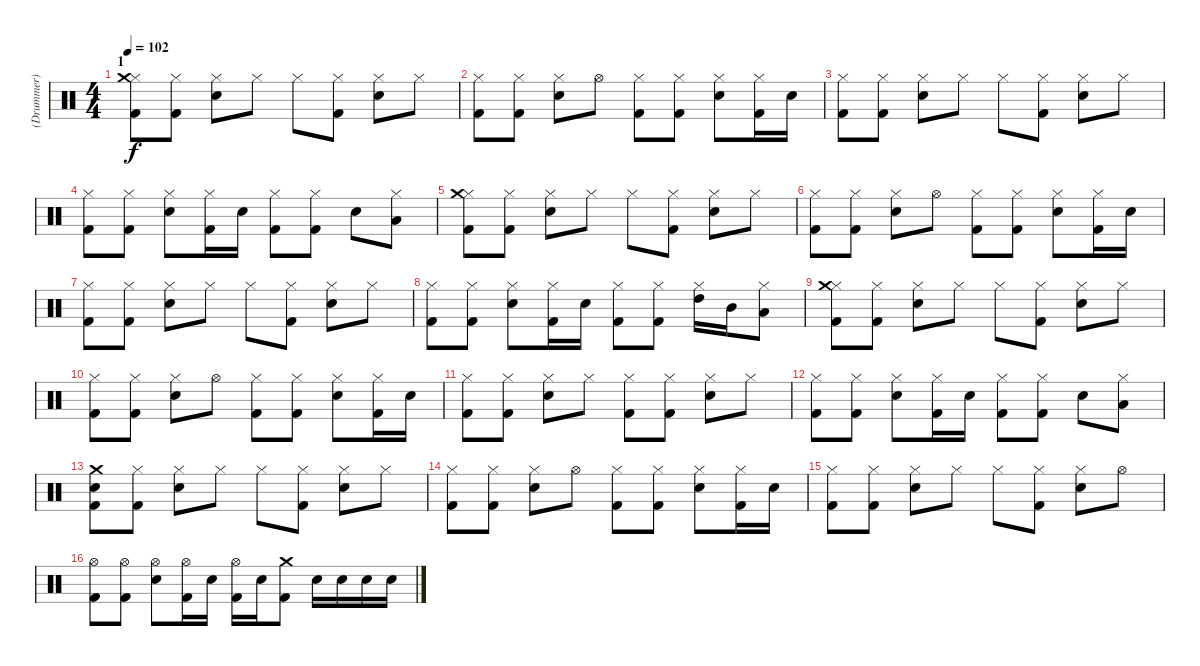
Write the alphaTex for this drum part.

\track ("(Drummer)" "(Drummer)") {solo instrument percussion}
\staff {score}
\articulation defaults
\ts (4 4)
\section ("" "1")
\tempo 102
\clef neutral
\ks c
("Hi-Hat (closed)" "Crash medium (hit)" "Kick (hit) 2").8{dy f} ("Hi-Hat (closed)" "Kick (hit) 2").8 ("Hi-Hat (closed)" "Electric Snare (hit)").8 "Hi-Hat (closed)".8 "Hi-Hat (closed)".8 ("Hi-Hat (closed)" "Kick (hit) 2").8 ("Hi-Hat (closed)" "Electric Snare (hit)").8 "Hi-Hat (closed)".8 |
("Hi-Hat (closed)" "Kick (hit) 2").8 ("Hi-Hat (closed)" "Kick (hit) 2").8 ("Hi-Hat (closed)" "Electric Snare (hit)").8 "Hi-Hat (open)".8 ("Hi-Hat (closed)" "Kick (hit) 2").8 ("Hi-Hat (closed)" "Kick (hit) 2").8 ("Hi-Hat (closed)" "Electric Snare (hit)").8 ("Hi-Hat (closed)" "Kick (hit) 2").16 "Electric Snare (hit)".16 |
("Hi-Hat (closed)" "Kick (hit) 2").8 ("Hi-Hat (closed)" "Kick (hit) 2").8 ("Hi-Hat (closed)" "Electric Snare (hit)").8 "Hi-Hat (closed)".8 "Hi-Hat (closed)".8 ("Hi-Hat (closed)" "Kick (hit) 2").8 ("Hi-Hat (closed)" "Electric Snare (hit)").8 "Hi-Hat (closed)".8 |
("Hi-Hat (closed)" "Kick (hit) 2").8 ("Hi-Hat (closed)" "Kick (hit) 2").8 ("Hi-Hat (closed)" "Electric Snare (hit)").8 ("Hi-Hat (closed)" "Kick (hit) 2").16 "Electric Snare (hit)".16 ("Hi-Hat (closed)" "Kick (hit) 2").8 ("Hi-Hat (closed)" "Kick (hit) 2").8 "Electric Snare (hit)".8 ("Hi-Hat (closed)" "Low Tom (hit)").8 |
("Hi-Hat (closed)" "Crash medium (hit)" "Kick (hit) 2").8 ("Hi-Hat (closed)" "Kick (hit) 2").8 ("Hi-Hat (closed)" "Electric Snare (hit)").8 "Hi-Hat (closed)".8 "Hi-Hat (closed)".8 ("Hi-Hat (closed)" "Kick (hit) 2").8 ("Hi-Hat (closed)" "Electric Snare (hit)").8 "Hi-Hat (closed)".8 |
("Hi-Hat (closed)" "Kick (hit) 2").8 ("Hi-Hat (closed)" "Kick (hit) 2").8 ("Hi-Hat (closed)" "Electric Snare (hit)").8 "Hi-Hat (open)".8 ("Hi-Hat (closed)" "Kick (hit) 2").8 ("Hi-Hat (closed)" "Kick (hit) 2").8 ("Hi-Hat (closed)" "Electric Snare (hit)").8 ("Hi-Hat (closed)" "Kick (hit) 2").16 "Electric Snare (hit)".16 |
("Hi-Hat (closed)" "Kick (hit) 2").8 ("Hi-Hat (closed)" "Kick (hit) 2").8 ("Hi-Hat (closed)" "Electric Snare (hit)").8 "Hi-Hat (closed)".8 "Hi-Hat (closed)".8 ("Hi-Hat (closed)" "Kick (hit) 2").8 ("Hi-Hat (closed)" "Electric Snare (hit)").8 "Hi-Hat (closed)".8 |
("Hi-Hat (closed)" "Kick (hit) 2").8 ("Hi-Hat (closed)" "Kick (hit) 2").8 ("Hi-Hat (closed)" "Electric Snare (hit)").8 ("Hi-Hat (closed)" "Kick (hit) 2").16 "Electric Snare (hit)".16 ("Hi-Hat (closed)" "Kick (hit) 2").8 ("Hi-Hat (closed)" "Kick (hit) 2").8 ("Hi-Hat (closed)" "High Tom (hit)").16 "Mid Tom (hit)".16 ("Hi-Hat (closed)" "Low Tom (hit)").8 |
("Hi-Hat (closed)" "Crash medium (hit)" "Kick (hit) 2").8 ("Hi-Hat (closed)" "Kick (hit) 2").8 ("Hi-Hat (closed)" "Electric Snare (hit)").8 "Hi-Hat (closed)".8 "Hi-Hat (closed)".8 ("Hi-Hat (closed)" "Kick (hit) 2").8 ("Hi-Hat (closed)" "Electric Snare (hit)").8 "Hi-Hat (closed)".8 |
("Hi-Hat (closed)" "Kick (hit) 2").8 ("Hi-Hat (closed)" "Kick (hit) 2").8 ("Hi-Hat (closed)" "Electric Snare (hit)").8 "Hi-Hat (open)".8 ("Hi-Hat (closed)" "Kick (hit) 2").8 ("Hi-Hat (closed)" "Kick (hit) 2").8 ("Hi-Hat (closed)" "Electric Snare (hit)").8 ("Hi-Hat (closed)" "Kick (hit) 2").16 "Electric Snare (hit)".16 |
("Hi-Hat (closed)" "Kick (hit) 2").8 ("Hi-Hat (closed)" "Kick (hit) 2").8 ("Hi-Hat (closed)" "Electric Snare (hit)").8 "Hi-Hat (closed)".8 ("Hi-Hat (closed)" "Kick (hit) 2").8 ("Hi-Hat (closed)" "Kick (hit) 2").8 ("Hi-Hat (closed)" "Electric Snare (hit)").8 "Hi-Hat (closed)".8 |
("Hi-Hat (closed)" "Kick (hit) 2").8 ("Hi-Hat (closed)" "Kick (hit) 2").8 ("Hi-Hat (closed)" "Electric Snare (hit)").8 ("Hi-Hat (closed)" "Kick (hit) 2").16 "Electric Snare (hit)".16 ("Hi-Hat (closed)" "Kick (hit) 2").8 ("Hi-Hat (closed)" "Kick (hit) 2").8 "Electric Snare (hit)".8 ("Hi-Hat (closed)" "Low Tom (hit)").8 |
("Snare (hit)" "Crash medium (hit)" "Kick (hit) 2").8 ("Hi-Hat (closed)" "Kick (hit) 2").8 ("Hi-Hat (closed)" "Electric Snare (hit)").8 "Hi-Hat (closed)".8 "Hi-Hat (closed)".8 ("Hi-Hat (closed)" "Kick (hit) 2").8 ("Hi-Hat (closed)" "Electric Snare (hit)").8 "Hi-Hat (closed)".8 |
("Hi-Hat (closed)" "Kick (hit) 2").8 ("Hi-Hat (closed)" "Kick (hit) 2").8 ("Hi-Hat (closed)" "Electric Snare (hit)").8 "Hi-Hat (open)".8 ("Hi-Hat (closed)" "Kick (hit) 2").8 ("Hi-Hat (closed)" "Kick (hit) 2").8 ("Hi-Hat (closed)" "Electric Snare (hit)").8 ("Hi-Hat (closed)" "Kick (hit) 2").16 "Electric Snare (hit)".16 |
("Hi-Hat (closed)" "Kick (hit) 2").8 ("Hi-Hat (closed)" "Kick (hit) 2").8 ("Hi-Hat (closed)" "Electric Snare (hit)").8 "Hi-Hat (closed)".8 "Hi-Hat (closed)".8 ("Hi-Hat (closed)" "Kick (hit) 2").8 ("Hi-Hat (closed)" "Electric Snare (hit)").8 "Hi-Hat (open)".8 |
("Hi-Hat (open)" "Kick (hit) 2").8 ("Hi-Hat (open)" "Kick (hit) 2").8 ("Hi-Hat (open)" "Electric Snare (hit)").8 ("Hi-Hat (open)" "Kick (hit) 2").16 "Electric Snare (hit)".16 ("Hi-Hat (open)" "Kick (hit) 2").16 "Electric Snare (hit)".16 ("Crash medium (hit)" "Kick (hit) 2").8 "Electric Snare (hit)".16 "Electric Snare (hit)".16 "Electric Snare (hit)".16 "Electric Snare (hit)".16
